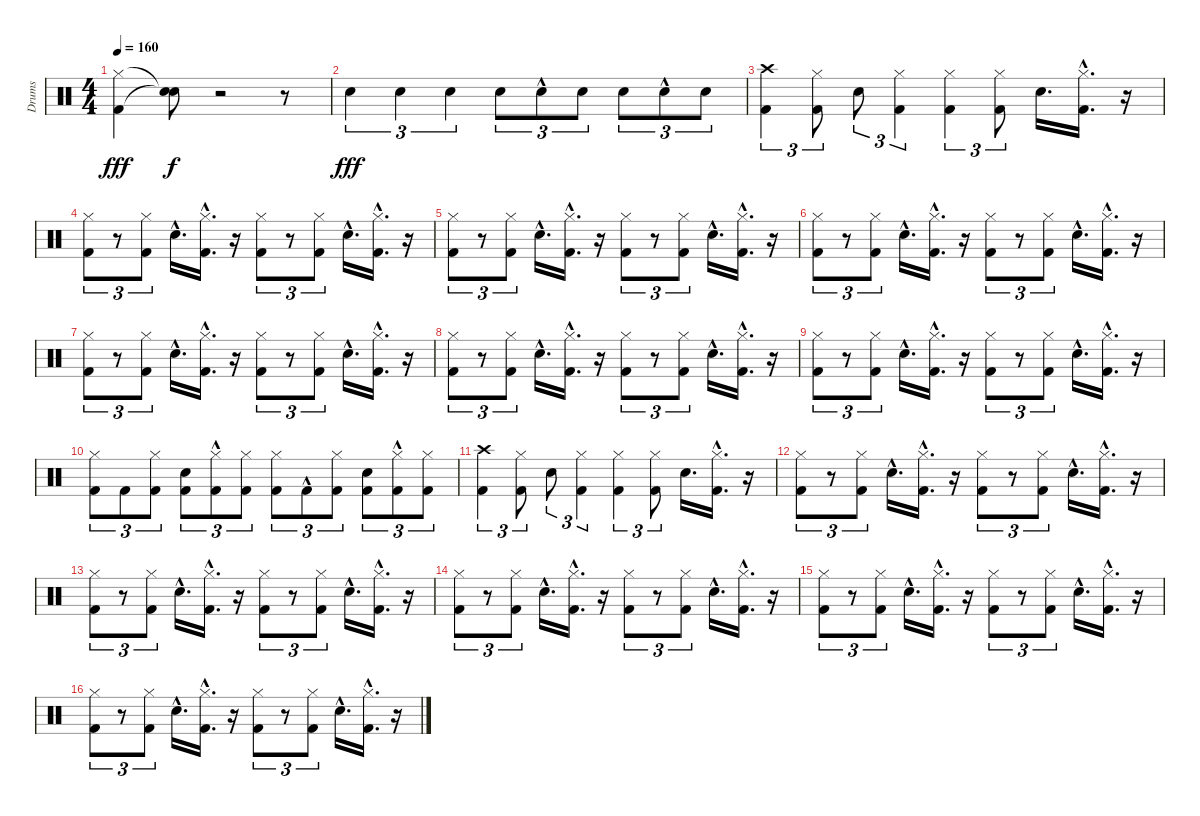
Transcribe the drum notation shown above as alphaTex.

\track ("Drums" "Drums") {instrument percussion}
\staff {score}
\articulation defaults
\ts (4 4)
\tempo 160
\clef neutral
\ks c
("Kick (hit) 2" "Hi-Hat (closed)").4{dy fff} ("Snare (hit)"{t} "Snare (hit)"{t}).8{dy f} r.2 r.8 |
"Snare (hit) 2".4{tu (3 2) dy fff} "Snare (hit) 2".4{tu (3 2)} "Snare (hit) 2".4{tu (3 2)} "Snare (hit) 2".8{tu (3 2)} "Snare (hit) 2"{hac}.8{tu (3 2)} "Snare (hit) 2".8{tu (3 2)} "Snare (hit) 2".8{tu (3 2)} "Snare (hit) 2"{hac}.8{tu (3 2)} "Snare (hit) 2".8{tu (3 2)} |
("Kick (hit) 2" "Crash high (hit)").4{tu (3 2)} ("Kick (hit) 2" "Hi-Hat (closed)").8{tu (3 2)} "Snare (hit) 2".8{tu (3 2)} ("Kick (hit) 2" "Hi-Hat (closed)").4{tu (3 2)} ("Kick (hit) 2" "Hi-Hat (closed)").4{tu (3 2)} ("Kick (hit) 2" "Hi-Hat (closed)").8{tu (3 2)} "Snare (hit) 2".16{d} ("Kick (hit) 2"{hac} "Hi-Hat (closed)"{hac}).16{d} r.16 |
("Kick (hit) 2" "Hi-Hat (closed)").8{tu (3 2)} r.8{tu (3 2)} ("Kick (hit) 2" "Hi-Hat (closed)").8{tu (3 2)} "Snare (hit) 2"{hac}.16{d} ("Kick (hit) 2"{hac} "Hi-Hat (closed)"{hac}).16{d} r.16 ("Kick (hit) 2" "Hi-Hat (closed)").8{tu (3 2)} r.8{tu (3 2)} ("Kick (hit) 2" "Hi-Hat (closed)").8{tu (3 2)} "Snare (hit) 2"{hac}.16{d} ("Kick (hit) 2"{hac} "Hi-Hat (closed)"{hac}).16{d} r.16 |
("Kick (hit) 2" "Hi-Hat (closed)").8{tu (3 2)} r.8{tu (3 2)} ("Kick (hit) 2" "Hi-Hat (closed)").8{tu (3 2)} "Snare (hit) 2"{hac}.16{d} ("Kick (hit) 2"{hac} "Hi-Hat (closed)"{hac}).16{d} r.16 ("Kick (hit) 2" "Hi-Hat (closed)").8{tu (3 2)} r.8{tu (3 2)} ("Kick (hit) 2" "Hi-Hat (closed)").8{tu (3 2)} "Snare (hit) 2"{hac}.16{d} ("Kick (hit) 2"{hac} "Hi-Hat (closed)"{hac}).16{d} r.16 |
("Kick (hit) 2" "Hi-Hat (closed)").8{tu (3 2)} r.8{tu (3 2)} ("Kick (hit) 2" "Hi-Hat (closed)").8{tu (3 2)} "Snare (hit) 2"{hac}.16{d} ("Kick (hit) 2"{hac} "Hi-Hat (closed)"{hac}).16{d} r.16 ("Kick (hit) 2" "Hi-Hat (closed)").8{tu (3 2)} r.8{tu (3 2)} ("Kick (hit) 2" "Hi-Hat (closed)").8{tu (3 2)} "Snare (hit) 2"{hac}.16{d} ("Kick (hit) 2"{hac} "Hi-Hat (closed)"{hac}).16{d} r.16 |
("Kick (hit) 2" "Hi-Hat (closed)").8{tu (3 2)} r.8{tu (3 2)} ("Kick (hit) 2" "Hi-Hat (closed)").8{tu (3 2)} "Snare (hit) 2"{hac}.16{d} ("Kick (hit) 2"{hac} "Hi-Hat (closed)"{hac}).16{d} r.16 ("Kick (hit) 2" "Hi-Hat (closed)").8{tu (3 2)} r.8{tu (3 2)} ("Kick (hit) 2" "Hi-Hat (closed)").8{tu (3 2)} "Snare (hit) 2"{hac}.16{d} ("Kick (hit) 2"{hac} "Hi-Hat (closed)"{hac}).16{d} r.16 |
("Kick (hit) 2" "Hi-Hat (closed)").8{tu (3 2)} r.8{tu (3 2)} ("Kick (hit) 2" "Hi-Hat (closed)").8{tu (3 2)} "Snare (hit) 2"{hac}.16{d} ("Kick (hit) 2"{hac} "Hi-Hat (closed)"{hac}).16{d} r.16 ("Kick (hit) 2" "Hi-Hat (closed)").8{tu (3 2)} r.8{tu (3 2)} ("Kick (hit) 2" "Hi-Hat (closed)").8{tu (3 2)} "Snare (hit) 2"{hac}.16{d} ("Kick (hit) 2"{hac} "Hi-Hat (closed)"{hac}).16{d} r.16 |
("Kick (hit) 2" "Hi-Hat (closed)").8{tu (3 2)} r.8{tu (3 2)} ("Kick (hit) 2" "Hi-Hat (closed)").8{tu (3 2)} "Snare (hit) 2"{hac}.16{d} ("Kick (hit) 2"{hac} "Hi-Hat (closed)"{hac}).16{d} r.16 ("Kick (hit) 2" "Hi-Hat (closed)").8{tu (3 2)} r.8{tu (3 2)} ("Kick (hit) 2" "Hi-Hat (closed)").8{tu (3 2)} "Snare (hit) 2"{hac}.16{d} ("Kick (hit) 2"{hac} "Hi-Hat (closed)"{hac}).16{d} r.16 |
("Kick (hit) 2" "Hi-Hat (closed)").8{tu (3 2)} "Kick (hit) 2".8{tu (3 2)} ("Kick (hit) 2" "Hi-Hat (closed)").8{tu (3 2)} ("Kick (hit) 2" "Snare (hit) 2").8{tu (3 2)} ("Kick (hit) 2"{hac} "Hi-Hat (closed)"{hac}).8{tu (3 2)} ("Kick (hit) 2" "Hi-Hat (closed)").8{tu (3 2)} ("Kick (hit) 2" "Hi-Hat (closed)").8{tu (3 2)} "Kick (hit) 2"{hac}.8{tu (3 2)} ("Kick (hit) 2" "Hi-Hat (closed)").8{tu (3 2)} ("Kick (hit) 2" "Snare (hit) 2").8{tu (3 2)} ("Kick (hit) 2"{hac} "Hi-Hat (closed)"{hac}).8{tu (3 2)} ("Kick (hit) 2" "Hi-Hat (closed)").8{tu (3 2)} |
("Kick (hit) 2" "Crash high (hit)").4{tu (3 2)} ("Kick (hit) 2" "Hi-Hat (closed)").8{tu (3 2)} "Snare (hit) 2".8{tu (3 2)} ("Kick (hit) 2" "Hi-Hat (closed)").4{tu (3 2)} ("Kick (hit) 2" "Hi-Hat (closed)").4{tu (3 2)} ("Kick (hit) 2" "Hi-Hat (closed)").8{tu (3 2)} "Snare (hit) 2".16{d} ("Kick (hit) 2"{hac} "Hi-Hat (closed)"{hac}).16{d} r.16 |
("Kick (hit) 2" "Hi-Hat (closed)").8{tu (3 2)} r.8{tu (3 2)} ("Kick (hit) 2" "Hi-Hat (closed)").8{tu (3 2)} "Snare (hit) 2"{hac}.16{d} ("Kick (hit) 2"{hac} "Hi-Hat (closed)"{hac}).16{d} r.16 ("Kick (hit) 2" "Hi-Hat (closed)").8{tu (3 2)} r.8{tu (3 2)} ("Kick (hit) 2" "Hi-Hat (closed)").8{tu (3 2)} "Snare (hit) 2"{hac}.16{d} ("Kick (hit) 2"{hac} "Hi-Hat (closed)"{hac}).16{d} r.16 |
("Kick (hit) 2" "Hi-Hat (closed)").8{tu (3 2)} r.8{tu (3 2)} ("Kick (hit) 2" "Hi-Hat (closed)").8{tu (3 2)} "Snare (hit) 2"{hac}.16{d} ("Kick (hit) 2"{hac} "Hi-Hat (closed)"{hac}).16{d} r.16 ("Kick (hit) 2" "Hi-Hat (closed)").8{tu (3 2)} r.8{tu (3 2)} ("Kick (hit) 2" "Hi-Hat (closed)").8{tu (3 2)} "Snare (hit) 2"{hac}.16{d} ("Kick (hit) 2"{hac} "Hi-Hat (closed)"{hac}).16{d} r.16 |
("Kick (hit) 2" "Hi-Hat (closed)").8{tu (3 2)} r.8{tu (3 2)} ("Kick (hit) 2" "Hi-Hat (closed)").8{tu (3 2)} "Snare (hit) 2"{hac}.16{d} ("Kick (hit) 2"{hac} "Hi-Hat (closed)"{hac}).16{d} r.16 ("Kick (hit) 2" "Hi-Hat (closed)").8{tu (3 2)} r.8{tu (3 2)} ("Kick (hit) 2" "Hi-Hat (closed)").8{tu (3 2)} "Snare (hit) 2"{hac}.16{d} ("Kick (hit) 2"{hac} "Hi-Hat (closed)"{hac}).16{d} r.16 |
("Kick (hit) 2" "Hi-Hat (closed)").8{tu (3 2)} r.8{tu (3 2)} ("Kick (hit) 2" "Hi-Hat (closed)").8{tu (3 2)} "Snare (hit) 2"{hac}.16{d} ("Kick (hit) 2"{hac} "Hi-Hat (closed)"{hac}).16{d} r.16 ("Kick (hit) 2" "Hi-Hat (closed)").8{tu (3 2)} r.8{tu (3 2)} ("Kick (hit) 2" "Hi-Hat (closed)").8{tu (3 2)} "Snare (hit) 2"{hac}.16{d} ("Kick (hit) 2"{hac} "Hi-Hat (closed)"{hac}).16{d} r.16 |
("Kick (hit) 2" "Hi-Hat (closed)").8{tu (3 2)} r.8{tu (3 2)} ("Kick (hit) 2" "Hi-Hat (closed)").8{tu (3 2)} "Snare (hit) 2"{hac}.16{d} ("Kick (hit) 2"{hac} "Hi-Hat (closed)"{hac}).16{d} r.16 ("Kick (hit) 2" "Hi-Hat (closed)").8{tu (3 2)} r.8{tu (3 2)} ("Kick (hit) 2" "Hi-Hat (closed)").8{tu (3 2)} "Snare (hit) 2"{hac}.16{d} ("Kick (hit) 2"{hac} "Hi-Hat (closed)"{hac}).16{d} r.16
